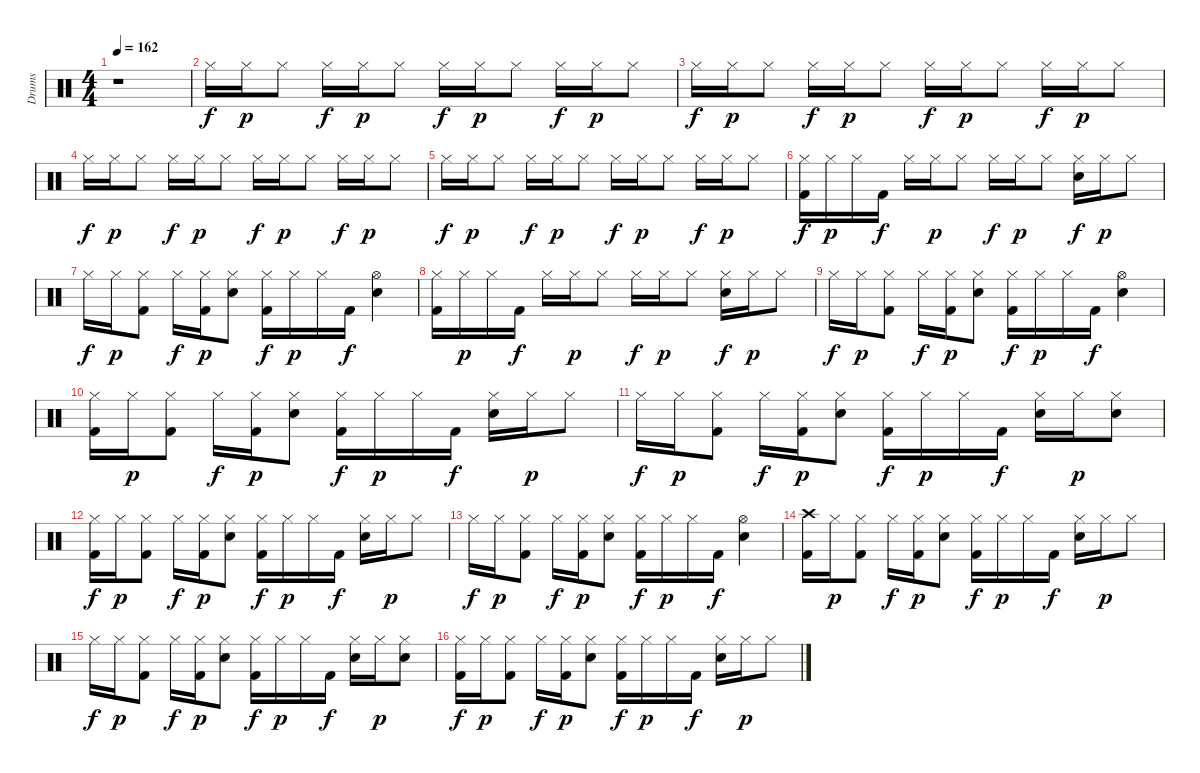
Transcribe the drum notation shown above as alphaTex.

\track ("Drums" "Drums") {instrument percussion}
\staff {score}
\articulation defaults
\ts (4 4)
\tempo 162
\clef neutral
\ks c
r.1{dy f} |
"Hi-Hat (closed)".16 "Hi-Hat (closed)".16{dy p} "Hi-Hat (closed)".8 "Hi-Hat (closed)".16{dy f} "Hi-Hat (closed)".16{dy p} "Hi-Hat (closed)".8 "Hi-Hat (closed)".16{dy f} "Hi-Hat (closed)".16{dy p} "Hi-Hat (closed)".8 "Hi-Hat (closed)".16{dy f} "Hi-Hat (closed)".16{dy p} "Hi-Hat (closed)".8 |
"Hi-Hat (closed)".16{dy f} "Hi-Hat (closed)".16{dy p} "Hi-Hat (closed)".8 "Hi-Hat (closed)".16{dy f} "Hi-Hat (closed)".16{dy p} "Hi-Hat (closed)".8 "Hi-Hat (closed)".16{dy f} "Hi-Hat (closed)".16{dy p} "Hi-Hat (closed)".8 "Hi-Hat (closed)".16{dy f} "Hi-Hat (closed)".16{dy p} "Hi-Hat (closed)".8 |
"Hi-Hat (closed)".16{dy f} "Hi-Hat (closed)".16{dy p} "Hi-Hat (closed)".8 "Hi-Hat (closed)".16{dy f} "Hi-Hat (closed)".16{dy p} "Hi-Hat (closed)".8 "Hi-Hat (closed)".16{dy f} "Hi-Hat (closed)".16{dy p} "Hi-Hat (closed)".8 "Hi-Hat (closed)".16{dy f} "Hi-Hat (closed)".16{dy p} "Hi-Hat (closed)".8 |
"Hi-Hat (closed)".16{dy f} "Hi-Hat (closed)".16{dy p} "Hi-Hat (closed)".8 "Hi-Hat (closed)".16{dy f} "Hi-Hat (closed)".16{dy p} "Hi-Hat (closed)".8 "Hi-Hat (closed)".16{dy f} "Hi-Hat (closed)".16{dy p} "Hi-Hat (closed)".8 "Hi-Hat (closed)".16{dy f} "Hi-Hat (closed)".16{dy p} "Hi-Hat (closed)".8 |
("Hi-Hat (closed)" "Kick (hit) 2").16{dy f} "Hi-Hat (closed)".16{dy p} "Hi-Hat (closed)".16 "Kick (hit) 2".16{dy f} "Hi-Hat (closed)".16 "Hi-Hat (closed)".16{dy p} "Hi-Hat (closed)".8 "Hi-Hat (closed)".16{dy f} "Hi-Hat (closed)".16{dy p} "Hi-Hat (closed)".8 ("Hi-Hat (closed)" "Electric Snare (hit)").16{dy f} "Hi-Hat (closed)".16{dy p} "Hi-Hat (closed)".8 |
"Hi-Hat (closed)".16{dy f} "Hi-Hat (closed)".16{dy p} ("Hi-Hat (closed)" "Kick (hit) 2").8 "Hi-Hat (closed)".16{dy f} ("Hi-Hat (closed)" "Kick (hit) 2").16{dy p} ("Hi-Hat (closed)" "Electric Snare (hit)").8 ("Hi-Hat (closed)" "Kick (hit) 2").16{dy f} "Hi-Hat (closed)".16{dy p} "Hi-Hat (closed)".16 "Kick (hit) 2".16{dy f} ("Hi-Hat (open)" "Electric Snare (hit)").4 |
("Hi-Hat (closed)" "Kick (hit) 2").16 "Hi-Hat (closed)".16{dy p} "Hi-Hat (closed)".16 "Kick (hit) 2".16{dy f} "Hi-Hat (closed)".16 "Hi-Hat (closed)".16{dy p} "Hi-Hat (closed)".8 "Hi-Hat (closed)".16{dy f} "Hi-Hat (closed)".16{dy p} "Hi-Hat (closed)".8 ("Hi-Hat (closed)" "Electric Snare (hit)").16{dy f} "Hi-Hat (closed)".16{dy p} "Hi-Hat (closed)".8 |
"Hi-Hat (closed)".16{dy f} "Hi-Hat (closed)".16{dy p} ("Hi-Hat (closed)" "Kick (hit) 2").8 "Hi-Hat (closed)".16{dy f} ("Hi-Hat (closed)" "Kick (hit) 2").16{dy p} ("Hi-Hat (closed)" "Electric Snare (hit)").8 ("Hi-Hat (closed)" "Kick (hit) 2").16{dy f} "Hi-Hat (closed)".16{dy p} "Hi-Hat (closed)".16 "Kick (hit) 2".16{dy f} ("Hi-Hat (open)" "Electric Snare (hit)").4 |
("Hi-Hat (closed)" "Kick (hit) 2").16 "Hi-Hat (closed)".16{dy p} ("Hi-Hat (closed)" "Kick (hit) 2").8 "Hi-Hat (closed)".16{dy f} ("Hi-Hat (closed)" "Kick (hit) 2").16{dy p} ("Hi-Hat (closed)" "Electric Snare (hit)").8 ("Hi-Hat (closed)" "Kick (hit) 2").16{dy f} "Hi-Hat (closed)".16{dy p} "Hi-Hat (closed)".16 "Kick (hit) 2".16{dy f} ("Hi-Hat (closed)" "Electric Snare (hit)").16 "Hi-Hat (closed)".16{dy p} "Hi-Hat (closed)".8 |
"Hi-Hat (closed)".16{dy f} "Hi-Hat (closed)".16{dy p} ("Hi-Hat (closed)" "Kick (hit) 2").8 "Hi-Hat (closed)".16{dy f} ("Hi-Hat (closed)" "Kick (hit) 2").16{dy p} ("Hi-Hat (closed)" "Electric Snare (hit)").8 ("Hi-Hat (closed)" "Kick (hit) 2").16{dy f} "Hi-Hat (closed)".16{dy p} "Hi-Hat (closed)".16 "Kick (hit) 2".16{dy f} ("Hi-Hat (closed)" "Electric Snare (hit)").16 "Hi-Hat (closed)".16{dy p} ("Hi-Hat (closed)" "Electric Snare (hit)").8 |
("Hi-Hat (closed)" "Kick (hit) 2").16{dy f} "Hi-Hat (closed)".16{dy p} ("Hi-Hat (closed)" "Kick (hit) 2").8 "Hi-Hat (closed)".16{dy f} ("Hi-Hat (closed)" "Kick (hit) 2").16{dy p} ("Hi-Hat (closed)" "Electric Snare (hit)").8 ("Hi-Hat (closed)" "Kick (hit) 2").16{dy f} "Hi-Hat (closed)".16{dy p} "Hi-Hat (closed)".16 "Kick (hit) 2".16{dy f} ("Hi-Hat (closed)" "Electric Snare (hit)").16 "Hi-Hat (closed)".16{dy p} "Hi-Hat (closed)".8 |
"Hi-Hat (closed)".16{dy f} "Hi-Hat (closed)".16{dy p} ("Hi-Hat (closed)" "Kick (hit) 2").8 "Hi-Hat (closed)".16{dy f} ("Hi-Hat (closed)" "Kick (hit) 2").16{dy p} ("Hi-Hat (closed)" "Electric Snare (hit)").8 ("Hi-Hat (closed)" "Kick (hit) 2").16{dy f} "Hi-Hat (closed)".16{dy p} "Hi-Hat (closed)".16 "Kick (hit) 2".16{dy f} ("Hi-Hat (open)" "Electric Snare (hit)").4 |
("Crash high (hit)" "Kick (hit) 2").16 "Hi-Hat (closed)".16{dy p} ("Hi-Hat (closed)" "Kick (hit) 2").8 "Hi-Hat (closed)".16{dy f} ("Hi-Hat (closed)" "Kick (hit) 2").16{dy p} ("Hi-Hat (closed)" "Electric Snare (hit)").8 ("Hi-Hat (closed)" "Kick (hit) 2").16{dy f} "Hi-Hat (closed)".16{dy p} "Hi-Hat (closed)".16 "Kick (hit) 2".16{dy f} ("Hi-Hat (closed)" "Electric Snare (hit)").16 "Hi-Hat (closed)".16{dy p} "Hi-Hat (closed)".8 |
"Hi-Hat (closed)".16{dy f} "Hi-Hat (closed)".16{dy p} ("Hi-Hat (closed)" "Kick (hit) 2").8 "Hi-Hat (closed)".16{dy f} ("Hi-Hat (closed)" "Kick (hit) 2").16{dy p} ("Hi-Hat (closed)" "Electric Snare (hit)").8 ("Hi-Hat (closed)" "Kick (hit) 2").16{dy f} "Hi-Hat (closed)".16{dy p} "Hi-Hat (closed)".16 "Kick (hit) 2".16{dy f} ("Hi-Hat (closed)" "Electric Snare (hit)").16 "Hi-Hat (closed)".16{dy p} ("Hi-Hat (closed)" "Electric Snare (hit)").8 |
("Hi-Hat (closed)" "Kick (hit) 2").16{dy f} "Hi-Hat (closed)".16{dy p} ("Hi-Hat (closed)" "Kick (hit) 2").8 "Hi-Hat (closed)".16{dy f} ("Hi-Hat (closed)" "Kick (hit) 2").16{dy p} ("Hi-Hat (closed)" "Electric Snare (hit)").8 ("Hi-Hat (closed)" "Kick (hit) 2").16{dy f} "Hi-Hat (closed)".16{dy p} "Hi-Hat (closed)".16 "Kick (hit) 2".16{dy f} ("Hi-Hat (closed)" "Electric Snare (hit)").16 "Hi-Hat (closed)".16{dy p} "Hi-Hat (closed)".8
